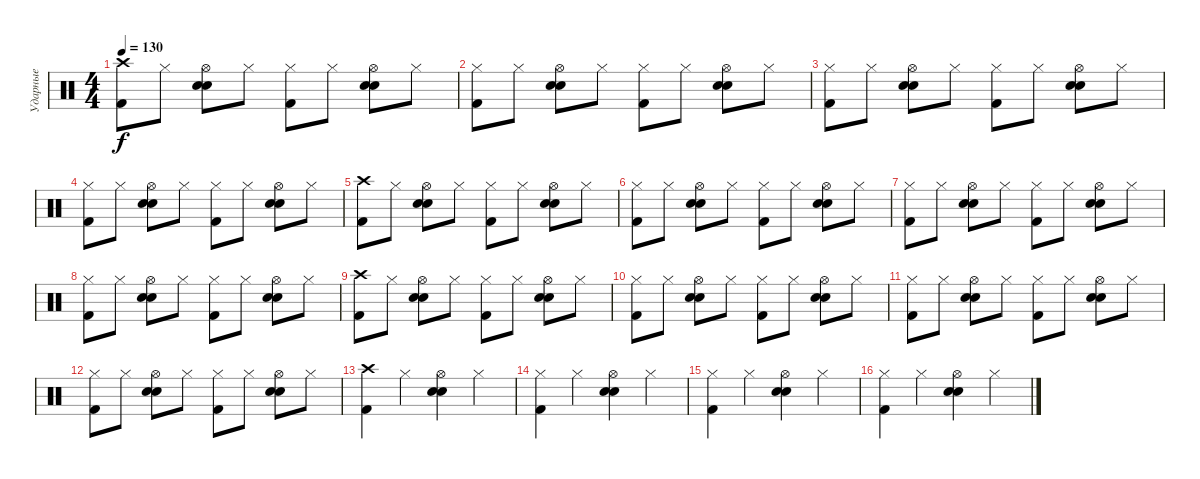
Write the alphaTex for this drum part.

\track ("Ударные" "Ударные") {instrument percussion}
\staff {score}
\articulation defaults
\ts (4 4)
\tempo 130
\clef neutral
\ks c
("Crash high (hit)" "Kick (hit) 2").8{dy f} "Hi-Hat (closed)".8 ("Hi-Hat (open)" "Hand Clap (hit)" "Snare (hit) 2").8 "Hi-Hat (closed)".8 ("Hi-Hat (closed)" "Kick (hit) 2").8 "Hi-Hat (closed)".8 ("Hi-Hat (open)" "Hand Clap (hit)" "Snare (hit) 2").8 "Hi-Hat (closed)".8 |
("Hi-Hat (closed)" "Kick (hit) 2").8 "Hi-Hat (closed)".8 ("Hi-Hat (open)" "Hand Clap (hit)" "Snare (hit) 2").8 "Hi-Hat (closed)".8 ("Hi-Hat (closed)" "Kick (hit) 2").8 "Hi-Hat (closed)".8 ("Hi-Hat (open)" "Hand Clap (hit)" "Snare (hit) 2").8 "Hi-Hat (closed)".8 |
("Hi-Hat (closed)" "Kick (hit) 2").8 "Hi-Hat (closed)".8 ("Hi-Hat (open)" "Hand Clap (hit)" "Snare (hit) 2").8 "Hi-Hat (closed)".8 ("Hi-Hat (closed)" "Kick (hit) 2").8 "Hi-Hat (closed)".8 ("Hi-Hat (open)" "Hand Clap (hit)" "Snare (hit) 2").8 "Hi-Hat (closed)".8 |
("Hi-Hat (closed)" "Kick (hit) 2").8 "Hi-Hat (closed)".8 ("Hi-Hat (open)" "Hand Clap (hit)" "Snare (hit) 2").8 "Hi-Hat (closed)".8 ("Hi-Hat (closed)" "Kick (hit) 2").8 "Hi-Hat (closed)".8 ("Hi-Hat (open)" "Hand Clap (hit)" "Snare (hit) 2").8 "Hi-Hat (closed)".8 |
("Crash high (hit)" "Kick (hit) 2").8{volume 14} "Hi-Hat (closed)".8 ("Hi-Hat (open)" "Hand Clap (hit)" "Snare (hit) 2").8 "Hi-Hat (closed)".8 ("Hi-Hat (closed)" "Kick (hit) 2").8 "Hi-Hat (closed)".8 ("Hi-Hat (open)" "Hand Clap (hit)" "Snare (hit) 2").8 "Hi-Hat (closed)".8 |
("Hi-Hat (closed)" "Kick (hit) 2").8 "Hi-Hat (closed)".8 ("Hi-Hat (open)" "Hand Clap (hit)" "Snare (hit) 2").8 "Hi-Hat (closed)".8 ("Hi-Hat (closed)" "Kick (hit) 2").8 "Hi-Hat (closed)".8 ("Hi-Hat (open)" "Hand Clap (hit)" "Snare (hit) 2").8 "Hi-Hat (closed)".8 |
("Hi-Hat (closed)" "Kick (hit) 2").8 "Hi-Hat (closed)".8 ("Hi-Hat (open)" "Hand Clap (hit)" "Snare (hit) 2").8 "Hi-Hat (closed)".8 ("Hi-Hat (closed)" "Kick (hit) 2").8 "Hi-Hat (closed)".8 ("Hi-Hat (open)" "Hand Clap (hit)" "Snare (hit) 2").8 "Hi-Hat (closed)".8 |
("Hi-Hat (closed)" "Kick (hit) 2").8 "Hi-Hat (closed)".8 ("Hi-Hat (open)" "Hand Clap (hit)" "Snare (hit) 2").8 "Hi-Hat (closed)".8 ("Hi-Hat (closed)" "Kick (hit) 2").8 "Hi-Hat (closed)".8 ("Hi-Hat (open)" "Hand Clap (hit)" "Snare (hit) 2").8 "Hi-Hat (closed)".8 |
("Crash high (hit)" "Kick (hit) 2").8 "Hi-Hat (closed)".8 ("Hi-Hat (open)" "Hand Clap (hit)" "Snare (hit) 2").8 "Hi-Hat (closed)".8 ("Hi-Hat (closed)" "Kick (hit) 2").8 "Hi-Hat (closed)".8 ("Hi-Hat (open)" "Hand Clap (hit)" "Snare (hit) 2").8 "Hi-Hat (closed)".8 |
("Hi-Hat (closed)" "Kick (hit) 2").8 "Hi-Hat (closed)".8 ("Hi-Hat (open)" "Hand Clap (hit)" "Snare (hit) 2").8 "Hi-Hat (closed)".8 ("Hi-Hat (closed)" "Kick (hit) 2").8 "Hi-Hat (closed)".8 ("Hi-Hat (open)" "Hand Clap (hit)" "Snare (hit) 2").8 "Hi-Hat (closed)".8 |
("Hi-Hat (closed)" "Kick (hit) 2").8 "Hi-Hat (closed)".8 ("Hi-Hat (open)" "Hand Clap (hit)" "Snare (hit) 2").8 "Hi-Hat (closed)".8 ("Hi-Hat (closed)" "Kick (hit) 2").8 "Hi-Hat (closed)".8 ("Hi-Hat (open)" "Hand Clap (hit)" "Snare (hit) 2").8 "Hi-Hat (closed)".8 |
("Hi-Hat (closed)" "Kick (hit) 2").8 "Hi-Hat (closed)".8 ("Hi-Hat (open)" "Hand Clap (hit)" "Snare (hit) 2").8 "Hi-Hat (closed)".8 ("Hi-Hat (closed)" "Kick (hit) 2").8 "Hi-Hat (closed)".8 ("Hi-Hat (open)" "Hand Clap (hit)" "Snare (hit) 2").8 "Hi-Hat (closed)".8 |
("Crash high (hit)" "Kick (hit) 2").4 "Hi-Hat (closed)".4 ("Hi-Hat (open)" "Hand Clap (hit)" "Snare (hit) 2").4 "Hi-Hat (closed)".4 |
("Hi-Hat (closed)" "Kick (hit) 2").4 "Hi-Hat (closed)".4 ("Hi-Hat (open)" "Hand Clap (hit)" "Snare (hit) 2").4 "Hi-Hat (closed)".4 |
("Hi-Hat (closed)" "Kick (hit) 2").4 "Hi-Hat (closed)".4 ("Hi-Hat (open)" "Hand Clap (hit)" "Snare (hit) 2").4 "Hi-Hat (closed)".4 |
("Hi-Hat (closed)" "Kick (hit) 2").4 "Hi-Hat (closed)".4 ("Hi-Hat (open)" "Hand Clap (hit)" "Snare (hit) 2").4 "Hi-Hat (closed)".4
